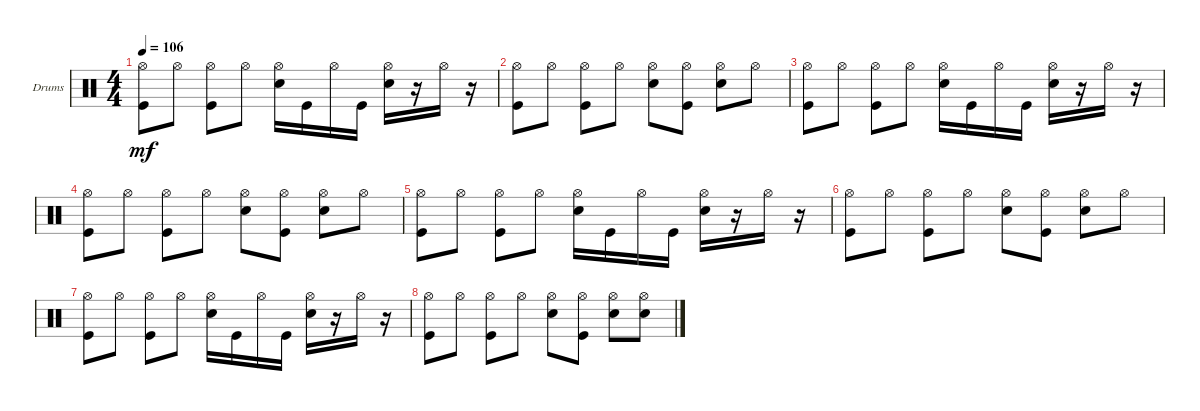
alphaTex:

\defaultSystemsLayout 4
\bracketExtendMode groupsimilarinstruments
\firstSystemTrackNameOrientation horizontal
\otherSystemsTrackNameOrientation horizontal
\track ("Drumkit" "Drums") {instrument percussion}
\staff {score}
\articulation defaults
\ts (4 4)
\tempo 106
\clef neutral
\ks c
("Kick (hit)" "Hi-Hat (open)").8{dy mf} "Hi-Hat (open)".8 ("Kick (hit)" "Hi-Hat (open)").8 "Hi-Hat (open)".8 ("Snare (hit) 2" "Hi-Hat (open)").16 "Kick (hit)".16 "Hi-Hat (open)".16 "Kick (hit)".16 ("Snare (hit) 2" "Hi-Hat (open)").16 r.16 "Hi-Hat (open)".16 r.16 |
("Kick (hit)" "Hi-Hat (open)").8 "Hi-Hat (open)".8 ("Kick (hit)" "Hi-Hat (open)").8 "Hi-Hat (open)".8 ("Snare (hit) 2" "Hi-Hat (open)").8 ("Kick (hit)" "Hi-Hat (open)").8 ("Snare (hit) 2" "Hi-Hat (open)").8 "Hi-Hat (open)".8 |
("Kick (hit)" "Hi-Hat (open)").8 "Hi-Hat (open)".8 ("Kick (hit)" "Hi-Hat (open)").8 "Hi-Hat (open)".8 ("Snare (hit) 2" "Hi-Hat (open)").16 "Kick (hit)".16 "Hi-Hat (open)".16 "Kick (hit)".16 ("Snare (hit) 2" "Hi-Hat (open)").16 r.16 "Hi-Hat (open)".16 r.16 |
("Kick (hit)" "Hi-Hat (open)").8 "Hi-Hat (open)".8 ("Kick (hit)" "Hi-Hat (open)").8 "Hi-Hat (open)".8 ("Snare (hit) 2" "Hi-Hat (open)").8 ("Kick (hit)" "Hi-Hat (open)").8 ("Snare (hit) 2" "Hi-Hat (open)").8 "Hi-Hat (open)".8 |
("Kick (hit)" "Hi-Hat (open)").8 "Hi-Hat (open)".8 ("Kick (hit)" "Hi-Hat (open)").8 "Hi-Hat (open)".8 ("Snare (hit) 2" "Hi-Hat (open)").16 "Kick (hit)".16 "Hi-Hat (open)".16 "Kick (hit)".16 ("Snare (hit) 2" "Hi-Hat (open)").16 r.16 "Hi-Hat (open)".16 r.16 |
("Kick (hit)" "Hi-Hat (open)").8 "Hi-Hat (open)".8 ("Kick (hit)" "Hi-Hat (open)").8 "Hi-Hat (open)".8 ("Snare (hit) 2" "Hi-Hat (open)").8 ("Kick (hit)" "Hi-Hat (open)").8 ("Snare (hit) 2" "Hi-Hat (open)").8 "Hi-Hat (open)".8 |
("Kick (hit)" "Hi-Hat (open)").8 "Hi-Hat (open)".8 ("Kick (hit)" "Hi-Hat (open)").8 "Hi-Hat (open)".8 ("Snare (hit) 2" "Hi-Hat (open)").16 "Kick (hit)".16 "Hi-Hat (open)".16 "Kick (hit)".16 ("Snare (hit) 2" "Hi-Hat (open)").16 r.16 "Hi-Hat (open)".16 r.16 |
("Kick (hit)" "Hi-Hat (open)").8 "Hi-Hat (open)".8 ("Kick (hit)" "Hi-Hat (open)").8 "Hi-Hat (open)".8 ("Snare (hit) 2" "Hi-Hat (open)").8 ("Kick (hit)" "Hi-Hat (open)").8 ("Snare (hit) 2" "Hi-Hat (open)").8 ("Hi-Hat (open)" "Snare (hit) 2").8
